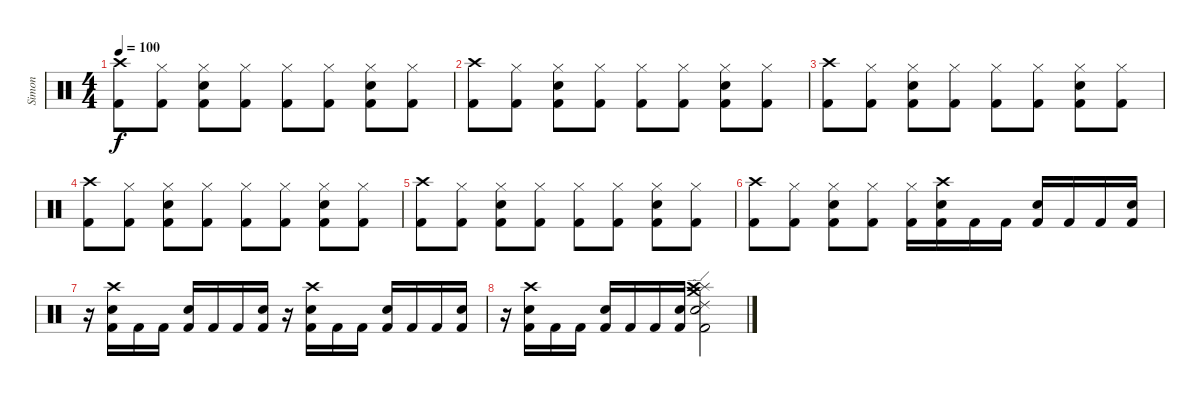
\track ("Simon" "Simon") {instrument percussion}
\staff {score}
\articulation defaults
\ts (4 4)
\tempo 100
\clef neutral
\ks c
("Crash high (hit)" "Kick (hit) 2").8{dy f} ("Hi-Hat (closed)" "Kick (hit) 2").8 ("Hi-Hat (closed)" "Snare (hit) 2" "Kick (hit) 2").8 ("Hi-Hat (closed)" "Kick (hit) 2").8 ("Hi-Hat (closed)" "Kick (hit) 2").8 ("Hi-Hat (closed)" "Kick (hit) 2").8 ("Hi-Hat (closed)" "Snare (hit) 2" "Kick (hit) 2").8 ("Hi-Hat (closed)" "Kick (hit) 2").8 |
("Crash high (hit)" "Kick (hit) 2").8 ("Hi-Hat (closed)" "Kick (hit) 2").8 ("Hi-Hat (closed)" "Snare (hit) 2" "Kick (hit) 2").8 ("Hi-Hat (closed)" "Kick (hit) 2").8 ("Hi-Hat (closed)" "Kick (hit) 2").8 ("Hi-Hat (closed)" "Kick (hit) 2").8 ("Hi-Hat (closed)" "Snare (hit) 2" "Kick (hit) 2").8 ("Hi-Hat (closed)" "Kick (hit) 2").8 |
("Crash high (hit)" "Kick (hit) 2").8 ("Hi-Hat (closed)" "Kick (hit) 2").8 ("Hi-Hat (closed)" "Snare (hit) 2" "Kick (hit) 2").8 ("Hi-Hat (closed)" "Kick (hit) 2").8 ("Hi-Hat (closed)" "Kick (hit) 2").8 ("Hi-Hat (closed)" "Kick (hit) 2").8 ("Hi-Hat (closed)" "Snare (hit) 2" "Kick (hit) 2").8 ("Hi-Hat (closed)" "Kick (hit) 2").8 |
("Crash high (hit)" "Kick (hit) 2").8 ("Hi-Hat (closed)" "Kick (hit) 2").8 ("Hi-Hat (closed)" "Snare (hit) 2" "Kick (hit) 2").8 ("Hi-Hat (closed)" "Kick (hit) 2").8 ("Hi-Hat (closed)" "Kick (hit) 2").8 ("Hi-Hat (closed)" "Kick (hit) 2").8 ("Hi-Hat (closed)" "Snare (hit) 2" "Kick (hit) 2").8 ("Hi-Hat (closed)" "Kick (hit) 2").8 |
("Crash high (hit)" "Kick (hit) 2").8 ("Hi-Hat (closed)" "Kick (hit) 2").8 ("Hi-Hat (closed)" "Snare (hit) 2" "Kick (hit) 2").8 ("Hi-Hat (closed)" "Kick (hit) 2").8 ("Hi-Hat (closed)" "Kick (hit) 2").8 ("Hi-Hat (closed)" "Kick (hit) 2").8 ("Hi-Hat (closed)" "Snare (hit) 2" "Kick (hit) 2").8 ("Hi-Hat (closed)" "Kick (hit) 2").8 |
("Crash high (hit)" "Kick (hit) 2").8 ("Hi-Hat (closed)" "Kick (hit) 2").8 ("Hi-Hat (closed)" "Snare (hit) 2" "Kick (hit) 2").8 ("Hi-Hat (closed)" "Kick (hit) 2").8 ("Hi-Hat (closed)" "Kick (hit) 2").16 ("Crash high (hit)" "Snare (hit) 2" "Kick (hit) 2").16 "Kick (hit) 2".16 "Kick (hit) 2".16 ("Snare (hit) 2" "Kick (hit) 2").16 "Kick (hit) 2".16 "Kick (hit) 2".16 ("Snare (hit) 2" "Kick (hit) 2").16 |
r.16 ("Crash high (hit)" "Snare (hit) 2" "Kick (hit) 2").16 "Kick (hit) 2".16 "Kick (hit) 2".16 ("Snare (hit) 2" "Kick (hit) 2").16 "Kick (hit) 2".16 "Kick (hit) 2".16 ("Snare (hit) 2" "Kick (hit) 2").16 r.16 ("Crash high (hit)" "Snare (hit) 2" "Kick (hit) 2").16 "Kick (hit) 2".16 "Kick (hit) 2".16 ("Snare (hit) 2" "Kick (hit) 2").16 "Kick (hit) 2".16 "Kick (hit) 2".16 ("Snare (hit) 2" "Kick (hit) 2").16 |
r.16 ("Crash high (hit)" "Snare (hit) 2" "Kick (hit) 2").16 "Kick (hit) 2".16 "Kick (hit) 2".16 ("Snare (hit) 2" "Kick (hit) 2").16 "Kick (hit) 2".16 "Kick (hit) 2".16 ("Snare (hit) 2" "Kick (hit) 2").16 ("Splash (hit)" "Crash medium (hit)" "Ride (edge) 2" "Crash high (hit)" "Snare (hit) 2" "Kick (hit) 2").2
